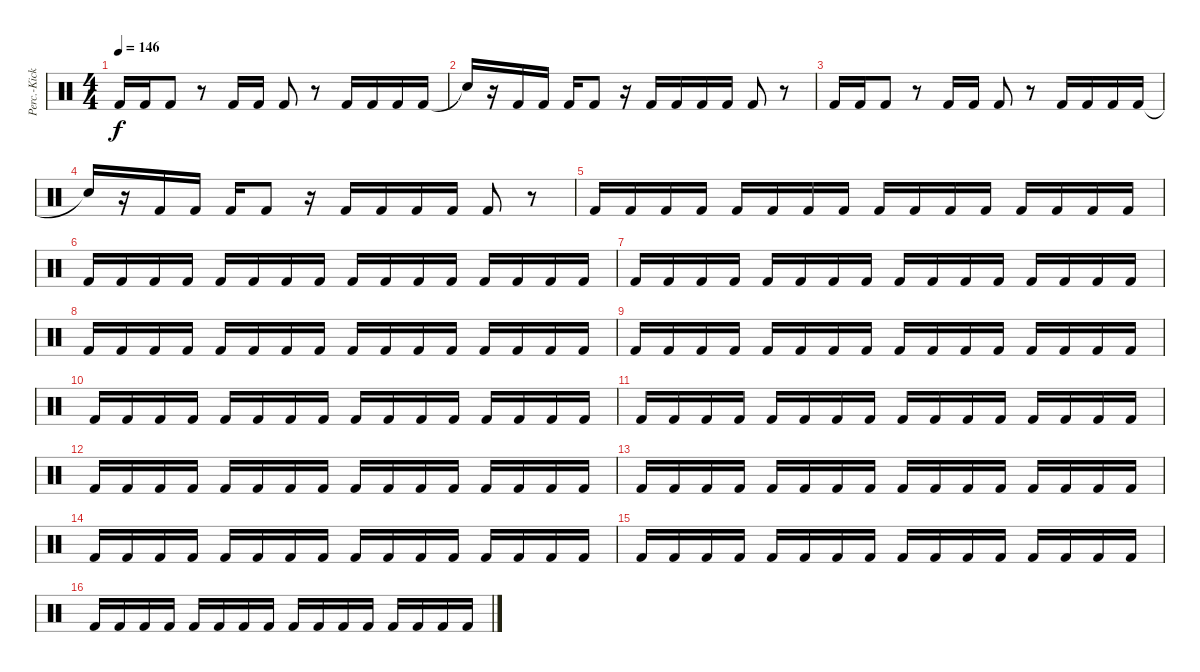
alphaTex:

\track ("Perc.-Kick" "Perc.-Kick") {instrument percussion}
\staff {score}
\articulation defaults
\ts (4 4)
\tempo 146
\clef neutral
\ks c "Kick (hit) 2".16{dy f} "Kick (hit) 2".16 "Kick (hit) 2".8
r.8 "Kick (hit) 2".16 "Kick (hit) 2".16 "Kick (hit) 2".8 r.8 "Kick (hit) 2".16 "Kick (hit) 2".16 "Kick (hit) 2".16 "Kick (hit) 2".16 |
"Snare (hit)"{t}.16 r.16 "Kick (hit) 2".16 "Kick (hit) 2".16 "Kick (hit) 2".16 "Kick (hit) 2".8 r.16 "Kick (hit) 2".16 "Kick (hit) 2".16 "Kick (hit) 2".16 "Kick (hit) 2".16 "Kick (hit) 2".8 r.8 |
"Kick (hit) 2".16 "Kick (hit) 2".16 "Kick (hit) 2".8 r.8 "Kick (hit) 2".16 "Kick (hit) 2".16 "Kick (hit) 2".8 r.8 "Kick (hit) 2".16 "Kick (hit) 2".16 "Kick (hit) 2".16 "Kick (hit) 2".16 |
"Snare (hit)"{t}.16 r.16 "Kick (hit) 2".16 "Kick (hit) 2".16 "Kick (hit) 2".16 "Kick (hit) 2".8 r.16 "Kick (hit) 2".16 "Kick (hit) 2".16 "Kick (hit) 2".16 "Kick (hit) 2".16 "Kick (hit) 2".8 r.8 |
"Kick (hit) 2".16 "Kick (hit) 2".16 "Kick (hit) 2".16 "Kick (hit) 2".16 "Kick (hit) 2".16 "Kick (hit) 2".16 "Kick (hit) 2".16 "Kick (hit) 2".16 "Kick (hit) 2".16 "Kick (hit) 2".16 "Kick (hit) 2".16 "Kick (hit) 2".16 "Kick (hit) 2".16 "Kick (hit) 2".16 "Kick (hit) 2".16 "Kick (hit) 2".16 |
"Kick (hit) 2".16 "Kick (hit) 2".16 "Kick (hit) 2".16 "Kick (hit) 2".16 "Kick (hit) 2".16 "Kick (hit) 2".16 "Kick (hit) 2".16 "Kick (hit) 2".16 "Kick (hit) 2".16 "Kick (hit) 2".16 "Kick (hit) 2".16 "Kick (hit) 2".16 "Kick (hit) 2".16 "Kick (hit) 2".16 "Kick (hit) 2".16 "Kick (hit) 2".16 |
"Kick (hit) 2".16 "Kick (hit) 2".16 "Kick (hit) 2".16 "Kick (hit) 2".16 "Kick (hit) 2".16 "Kick (hit) 2".16 "Kick (hit) 2".16 "Kick (hit) 2".16 "Kick (hit) 2".16 "Kick (hit) 2".16 "Kick (hit) 2".16 "Kick (hit) 2".16 "Kick (hit) 2".16 "Kick (hit) 2".16 "Kick (hit) 2".16 "Kick (hit) 2".16 |
"Kick (hit) 2".16 "Kick (hit) 2".16 "Kick (hit) 2".16 "Kick (hit) 2".16 "Kick (hit) 2".16 "Kick (hit) 2".16 "Kick (hit) 2".16 "Kick (hit) 2".16 "Kick (hit) 2".16 "Kick (hit) 2".16 "Kick (hit) 2".16 "Kick (hit) 2".16 "Kick (hit) 2".16 "Kick (hit) 2".16 "Kick (hit) 2".16 "Kick (hit) 2".16 |
"Kick (hit) 2".16 "Kick (hit) 2".16 "Kick (hit) 2".16 "Kick (hit) 2".16 "Kick (hit) 2".16 "Kick (hit) 2".16 "Kick (hit) 2".16 "Kick (hit) 2".16 "Kick (hit) 2".16 "Kick (hit) 2".16 "Kick (hit) 2".16 "Kick (hit) 2".16 "Kick (hit) 2".16 "Kick (hit) 2".16 "Kick (hit) 2".16 "Kick (hit) 2".16 |
"Kick (hit) 2".16 "Kick (hit) 2".16 "Kick (hit) 2".16 "Kick (hit) 2".16 "Kick (hit) 2".16 "Kick (hit) 2".16 "Kick (hit) 2".16 "Kick (hit) 2".16 "Kick (hit) 2".16 "Kick (hit) 2".16 "Kick (hit) 2".16 "Kick (hit) 2".16 "Kick (hit) 2".16 "Kick (hit) 2".16 "Kick (hit) 2".16 "Kick (hit) 2".16 |
"Kick (hit) 2".16 "Kick (hit) 2".16 "Kick (hit) 2".16 "Kick (hit) 2".16 "Kick (hit) 2".16 "Kick (hit) 2".16 "Kick (hit) 2".16 "Kick (hit) 2".16 "Kick (hit) 2".16 "Kick (hit) 2".16 "Kick (hit) 2".16 "Kick (hit) 2".16 "Kick (hit) 2".16 "Kick (hit) 2".16 "Kick (hit) 2".16 "Kick (hit) 2".16 |
"Kick (hit) 2".16 "Kick (hit) 2".16 "Kick (hit) 2".16 "Kick (hit) 2".16 "Kick (hit) 2".16 "Kick (hit) 2".16 "Kick (hit) 2".16 "Kick (hit) 2".16 "Kick (hit) 2".16 "Kick (hit) 2".16 "Kick (hit) 2".16 "Kick (hit) 2".16 "Kick (hit) 2".16 "Kick (hit) 2".16 "Kick (hit) 2".16 "Kick (hit) 2".16 |
"Kick (hit) 2".16 "Kick (hit) 2".16 "Kick (hit) 2".16 "Kick (hit) 2".16 "Kick (hit) 2".16 "Kick (hit) 2".16 "Kick (hit) 2".16 "Kick (hit) 2".16 "Kick (hit) 2".16 "Kick (hit) 2".16 "Kick (hit) 2".16 "Kick (hit) 2".16 "Kick (hit) 2".16 "Kick (hit) 2".16 "Kick (hit) 2".16 "Kick (hit) 2".16 |
"Kick (hit) 2".16 "Kick (hit) 2".16 "Kick (hit) 2".16 "Kick (hit) 2".16 "Kick (hit) 2".16 "Kick (hit) 2".16 "Kick (hit) 2".16 "Kick (hit) 2".16 "Kick (hit) 2".16 "Kick (hit) 2".16 "Kick (hit) 2".16 "Kick (hit) 2".16 "Kick (hit) 2".16 "Kick (hit) 2".16 "Kick (hit) 2".16 "Kick (hit) 2".16 |
"Kick (hit) 2".16 "Kick (hit) 2".16 "Kick (hit) 2".16 "Kick (hit) 2".16 "Kick (hit) 2".16 "Kick (hit) 2".16 "Kick (hit) 2".16 "Kick (hit) 2".16 "Kick (hit) 2".16 "Kick (hit) 2".16 "Kick (hit) 2".16 "Kick (hit) 2".16 "Kick (hit) 2".16 "Kick (hit) 2".16 "Kick (hit) 2".16 "Kick (hit) 2".16 |
"Kick (hit) 2".16 "Kick (hit) 2".16 "Kick (hit) 2".16 "Kick (hit) 2".16 "Kick (hit) 2".16 "Kick (hit) 2".16 "Kick (hit) 2".16 "Kick (hit) 2".16 "Kick (hit) 2".16 "Kick (hit) 2".16 "Kick (hit) 2".16 "Kick (hit) 2".16 "Kick (hit) 2".16 "Kick (hit) 2".16 "Kick (hit) 2".16 "Kick (hit) 2".16
